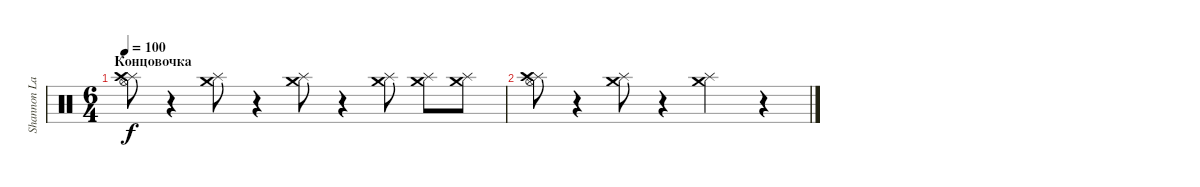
\track ("Shannon Larkin [1]" "Shannon La") {instrument percussion}
\staff {score}
\articulation defaults
\ts (6 4)
\section ("" "Концовочка")
\tempo 100
\clef neutral
\ks c
("Splash (hit)" "Crash high (hit)" "Hi-Hat (open)").8{dy f} r.4 ("Splash (hit)" "Crash medium (hit)").8 r.4 ("Splash (hit)" "Crash medium (hit)").8 r.4 ("Splash (hit)" "Crash medium (hit)").8 ("Splash (hit)" "Crash medium (hit)").8 ("Splash (hit)" "Crash medium (hit)").8 |
("Splash (hit)" "Crash high (hit)" "Hi-Hat (open)").8 r.4 ("Splash (hit)" "Crash medium (hit)").8 r.4 ("Splash (hit)" "Crash medium (hit)").2 r.4
